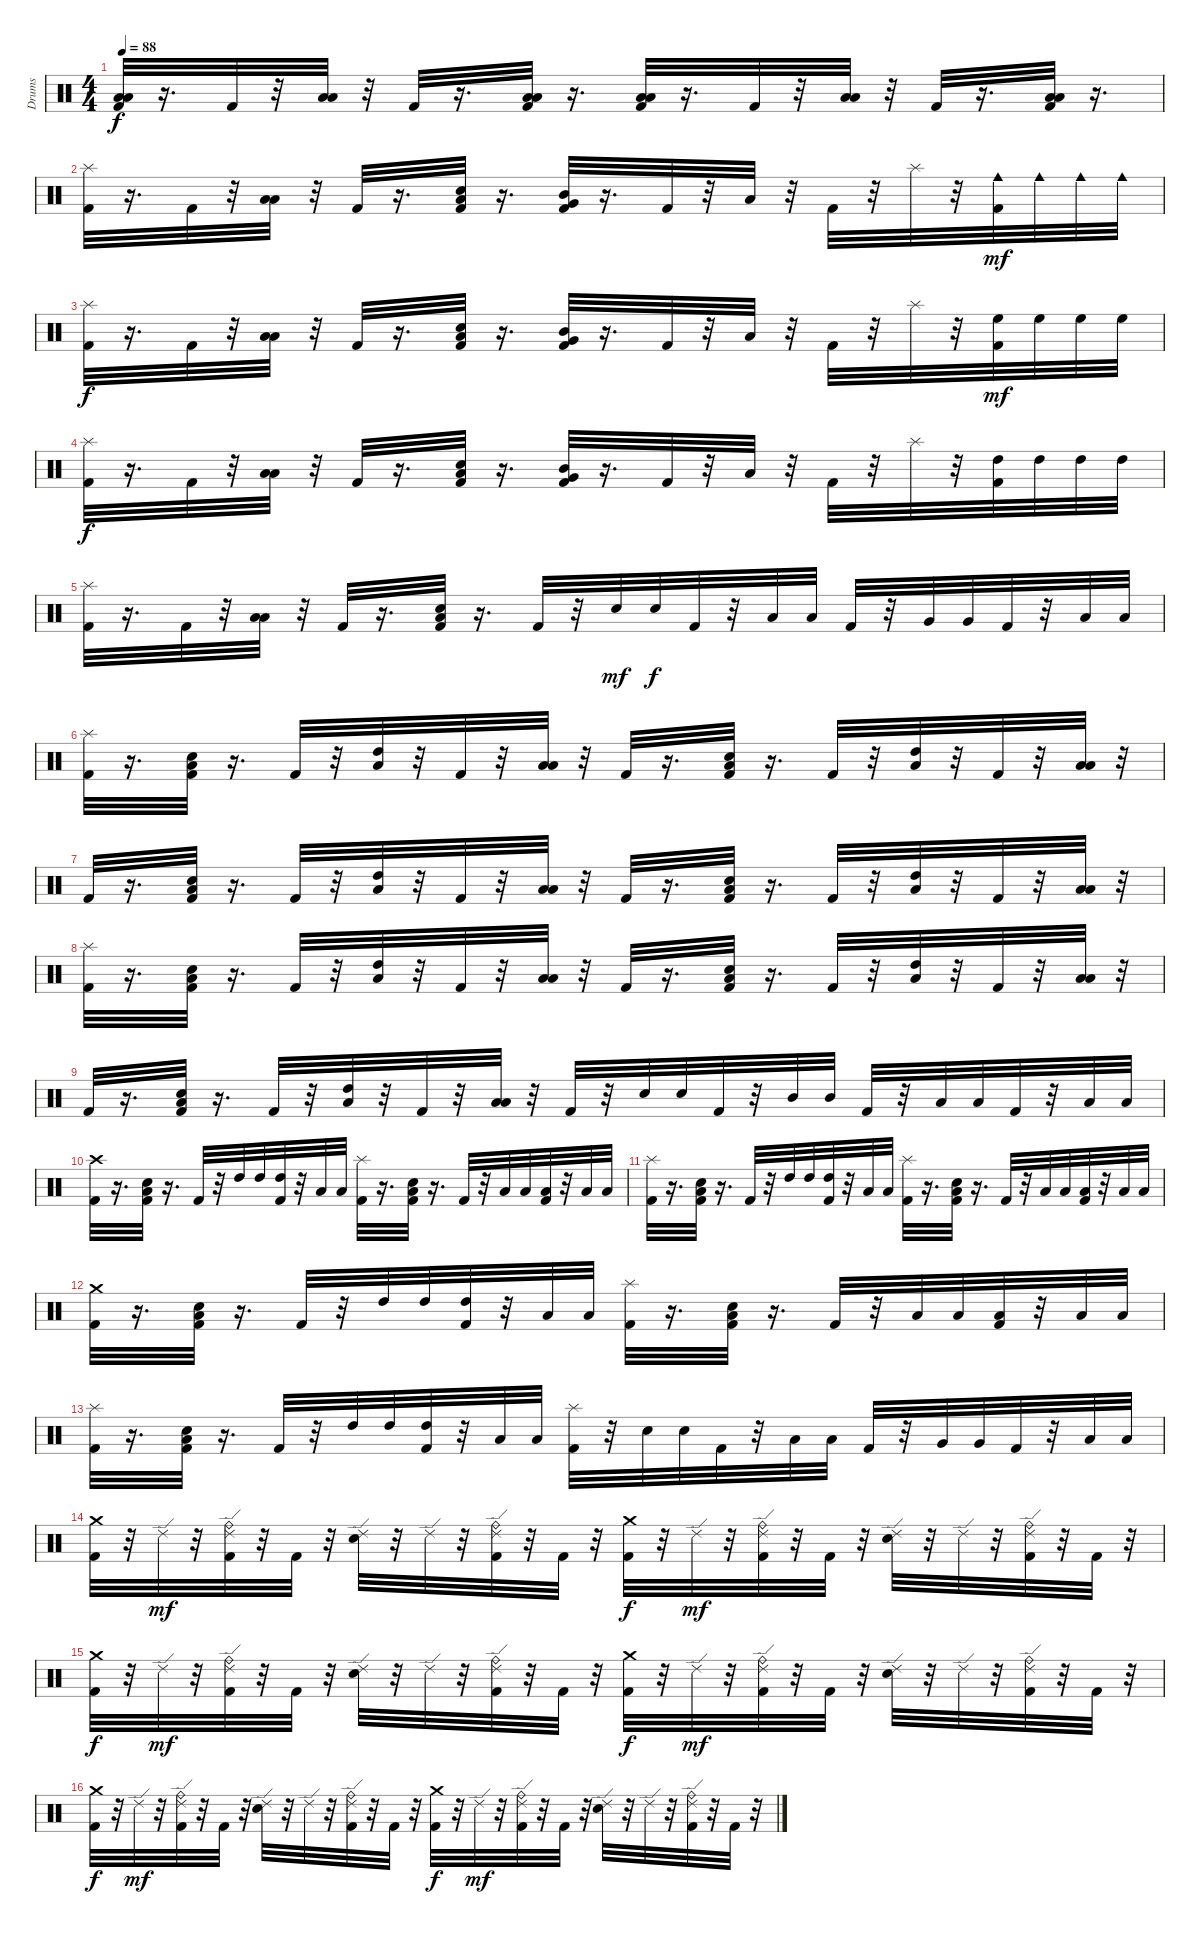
\track ("Drums" "Drums") {instrument percussion}
\staff {score}
\articulation defaults
\ts (4 4)
\tempo 88
\clef neutral
\ks c
("Low Tom (hit)" "Low Floor Tom (hit)" "Kick (hit) 2").32{dy f} r.16{d} "Kick (hit) 2".32 r.32 ("Low Tom (hit)" "Low Floor Tom (hit)").32 r.32 "Kick (hit) 2".32 r.16{d} ("Kick (hit) 2" "Low Floor Tom (hit)" "Low Tom (hit)").32 r.16{d} ("Low Tom (hit)" "Low Floor Tom (hit)" "Kick (hit) 2").32 r.16{d} "Kick (hit) 2".32 r.32 ("Low Floor Tom (hit)" "Low Tom (hit)").32 r.32 "Kick (hit) 2".32 r.16{d} ("Kick (hit) 2" "Low Tom (hit)" "Low Floor Tom (hit)").32 r.16{d} |
("Splash (hit)" "Kick (hit) 2").32 r.16{d} "Kick (hit) 2".32 r.32 ("Low Tom (hit)" "Low Floor Tom (hit)").32 r.32 "Kick (hit) 2".32 r.16{d} ("Low Floor Tom (hit)" "Kick (hit) 2" "Snare (hit) 2").32 r.16{d} ("Mid Tom (hit)" "Very Low Tom (hit)" "Kick (hit) 2").32 r.16{d} "Kick (hit) 2".32 r.32 "Low Floor Tom (hit)".32 r.32 "Kick (hit) 2".32 r.32 "Splash (hit)".32 r.32 ("Cowbell medium (hit)" "Kick (hit) 2").32{dy mf} "Cowbell medium (hit)".32 "Cowbell medium (hit)".32 "Cowbell medium (hit)".32 |
("Splash (hit)" "Kick (hit) 2").32{dy f} r.16{d} "Kick (hit) 2".32 r.32 ("Low Tom (hit)" "Low Floor Tom (hit)").32 r.32 "Kick (hit) 2".32 r.16{d} ("Low Floor Tom (hit)" "Kick (hit) 2" "Snare (hit) 2").32 r.16{d} ("Mid Tom (hit)" "Very Low Tom (hit)" "Kick (hit) 2").32 r.16{d} "Kick (hit) 2".32 r.32 "Low Floor Tom (hit)".32 r.32 "Kick (hit) 2".32 r.32 "Splash (hit)".32 r.32 ("High Floor Tom (hit)" "Kick (hit) 2").32{dy mf} "High Floor Tom (hit)".32 "High Floor Tom (hit)".32 "High Floor Tom (hit)".32 |
("Kick (hit) 2" "Splash (hit)").32{dy f} r.16{d} "Kick (hit) 2".32 r.32 ("Low Tom (hit)" "Low Floor Tom (hit)").32 r.32 "Kick (hit) 2".32 r.16{d} ("Low Floor Tom (hit)" "Kick (hit) 2" "Snare (hit) 2").32 r.16{d} ("Mid Tom (hit)" "Very Low Tom (hit)" "Kick (hit) 2").32 r.16{d} "Kick (hit) 2".32 r.32 "Low Floor Tom (hit)".32 r.32 "Kick (hit) 2".32 r.32 "Splash (hit)".32 r.32 ("High Tom (hit)" "Kick (hit) 2").32 "High Tom (hit)".32 "High Tom (hit)".32 "High Tom (hit)".32 |
("Splash (hit)" "Kick (hit) 2").32 r.16{d} "Kick (hit) 2".32 r.32 ("Low Tom (hit)" "Low Floor Tom (hit)").32 r.32 "Kick (hit) 2".32 r.16{d} ("Low Floor Tom (hit)" "Kick (hit) 2" "Snare (hit) 2").32 r.16{d} "Kick (hit) 2".32 r.32 "Snare (hit) 2".32{dy mf} "Snare (hit) 2".32{dy f} "Kick (hit) 2".32 r.32 "Low Tom (hit)".32 "Low Tom (hit)".32 "Kick (hit) 2".32 r.32 "Very Low Tom (hit)".32 "Very Low Tom (hit)".32 "Kick (hit) 2".32 r.32 "Low Floor Tom (hit)".32 "Low Floor Tom (hit)".32 |
("Kick (hit) 2" "Splash (hit)").32 r.16{d} ("Low Floor Tom (hit)" "Snare (hit) 2" "Kick (hit) 2").32 r.16{d} "Kick (hit) 2".32 r.32 ("Low Tom (hit)" "High Tom (hit)").32 r.32 "Kick (hit) 2".32 r.32 ("Low Floor Tom (hit)" "Low Tom (hit)").32 r.32 "Kick (hit) 2".32 r.16{d} ("Low Floor Tom (hit)" "Kick (hit) 2" "Snare (hit) 2").32 r.16{d} "Kick (hit) 2".32 r.32 ("Low Tom (hit)" "High Tom (hit)").32 r.32 "Kick (hit) 2".32 r.32 ("Low Tom (hit)" "Low Floor Tom (hit)").32 r.32 |
"Kick (hit) 2".32 r.16{d} ("Low Floor Tom (hit)" "Snare (hit) 2" "Kick (hit) 2").32 r.16{d} "Kick (hit) 2".32 r.32 ("Low Tom (hit)" "High Tom (hit)").32 r.32 "Kick (hit) 2".32 r.32 ("Low Floor Tom (hit)" "Low Tom (hit)").32 r.32 "Kick (hit) 2".32 r.16{d} ("Low Floor Tom (hit)" "Kick (hit) 2" "Snare (hit) 2").32 r.16{d} "Kick (hit) 2".32 r.32 ("Low Tom (hit)" "High Tom (hit)").32 r.32 "Kick (hit) 2".32 r.32 ("Low Tom (hit)" "Low Floor Tom (hit)").32 r.32 |
("Kick (hit) 2" "Splash (hit)").32 r.16{d} ("Low Floor Tom (hit)" "Snare (hit) 2" "Kick (hit) 2").32 r.16{d} "Kick (hit) 2".32 r.32 ("Low Tom (hit)" "High Tom (hit)").32 r.32 "Kick (hit) 2".32 r.32 ("Low Floor Tom (hit)" "Low Tom (hit)").32 r.32 "Kick (hit) 2".32 r.16{d} ("Low Floor Tom (hit)" "Kick (hit) 2" "Snare (hit) 2").32 r.16{d} "Kick (hit) 2".32 r.32 ("Low Tom (hit)" "High Tom (hit)").32 r.32 "Kick (hit) 2".32 r.32 ("Low Tom (hit)" "Low Floor Tom (hit)").32 r.32 |
"Kick (hit) 2".32 r.16{d} ("Low Floor Tom (hit)" "Snare (hit) 2" "Kick (hit) 2").32 r.16{d} "Kick (hit) 2".32 r.32 ("Low Tom (hit)" "High Tom (hit)").32 r.32 "Kick (hit) 2".32 r.32 ("Low Floor Tom (hit)" "Low Tom (hit)").32 r.32 "Kick (hit) 2".32 r.32 "Snare (hit) 2".32 "Snare (hit) 2".32 "Kick (hit) 2".32 r.32 "Mid Tom (hit)".32 "Mid Tom (hit)".32 "Kick (hit) 2".32 r.32 "Low Tom (hit)".32 "Low Tom (hit)".32 "Kick (hit) 2".32 r.32 "Low Floor Tom (hit)".32 "Low Floor Tom (hit)".32 |
("Kick (hit) 2" "Crash high (hit)").32 r.16{d} ("Low Floor Tom (hit)" "Snare (hit) 2" "Kick (hit) 2").32 r.16{d} "Kick (hit) 2".32 r.32 "High Tom (hit)".32 "High Tom (hit)".32 ("High Tom (hit)" "Kick (hit) 2").32 r.32 "Low Tom (hit)".32 "Low Tom (hit)".32 ("Splash (hit)" "Kick (hit) 2").32 r.16{d} ("Low Floor Tom (hit)" "Kick (hit) 2" "Snare (hit) 2").32 r.16{d} "Kick (hit) 2".32 r.32 "Low Tom (hit)".32 "Low Tom (hit)".32 ("Low Tom (hit)" "Kick (hit) 2").32 r.32 "Low Floor Tom (hit)".32 "Low Floor Tom (hit)".32 |
("Kick (hit) 2" "Splash (hit)").32 r.16{d} ("Low Floor Tom (hit)" "Snare (hit) 2" "Kick (hit) 2").32 r.16{d} "Kick (hit) 2".32 r.32 "High Tom (hit)".32 "High Tom (hit)".32 ("High Tom (hit)" "Kick (hit) 2").32 r.32 "Low Tom (hit)".32 "Low Tom (hit)".32 ("Splash (hit)" "Kick (hit) 2").32 r.16{d} ("Low Floor Tom (hit)" "Kick (hit) 2" "Snare (hit) 2").32 r.16{d} "Kick (hit) 2".32 r.32 "Low Tom (hit)".32 "Low Tom (hit)".32 ("Low Tom (hit)" "Kick (hit) 2").32 r.32 "Low Floor Tom (hit)".32 "Low Floor Tom (hit)".32 |
("Kick (hit) 2" "Crash medium (hit)").32 r.16{d} ("Low Floor Tom (hit)" "Snare (hit) 2" "Kick (hit) 2").32 r.16{d} "Kick (hit) 2".32 r.32 "High Tom (hit)".32 "High Tom (hit)".32 ("High Tom (hit)" "Kick (hit) 2").32 r.32 "Low Tom (hit)".32 "Low Tom (hit)".32 ("Splash (hit)" "Kick (hit) 2").32 r.16{d} ("Low Floor Tom (hit)" "Kick (hit) 2" "Snare (hit) 2").32 r.16{d} "Kick (hit) 2".32 r.32 "Low Tom (hit)".32 "Low Tom (hit)".32 ("Low Tom (hit)" "Kick (hit) 2").32 r.32 "Low Floor Tom (hit)".32 "Low Floor Tom (hit)".32 |
("Kick (hit) 2" "Splash (hit)").32 r.16{d} ("Low Floor Tom (hit)" "Snare (hit) 2" "Kick (hit) 2").32 r.16{d} "Kick (hit) 2".32 r.32 "High Tom (hit)".32 "High Tom (hit)".32 ("High Tom (hit)" "Kick (hit) 2").32 r.32 "Low Tom (hit)".32 "Low Tom (hit)".32 ("Splash (hit)" "Kick (hit) 2").32 r.32 "Snare (hit) 2".32 "Snare (hit) 2".32 "Kick (hit) 2".32 r.32 "Low Tom (hit)".32 "Low Tom (hit)".32 "Kick (hit) 2".32 r.32 "Very Low Tom (hit)".32 "Very Low Tom (hit)".32 "Kick (hit) 2".32 r.32 "Low Floor Tom (hit)".32 "Low Floor Tom (hit)".32 |
("Crash medium (hit)" "Kick (hit) 2").32 r.32 "Ride (edge) 2".32{dy mf} r.32 ("Ride (bell)" "Ride (edge) 2" "Kick (hit) 2").32 r.32 "Kick (hit) 2".32 r.32 ("Ride (edge) 2" "Snare (hit) 2").32 r.32 "Ride (edge) 2".32 r.32 ("Ride (bell)" "Ride (edge) 2" "Kick (hit) 2").32 r.32 "Kick (hit) 2".32 r.32 ("Crash medium (hit)" "Kick (hit) 2").32{dy f} r.32 "Ride (edge) 2".32{dy mf} r.32 ("Ride (bell)" "Ride (edge) 2" "Kick (hit) 2").32 r.32 "Kick (hit) 2".32 r.32 ("Ride (edge) 2" "Snare (hit) 2").32 r.32 "Ride (edge) 2".32 r.32 ("Ride (bell)" "Ride (edge) 2" "Kick (hit) 2").32 r.32 "Kick (hit) 2".32 r.32 |
("Crash medium (hit)" "Kick (hit) 2").32{dy f} r.32 "Ride (edge) 2".32{dy mf} r.32 ("Ride (bell)" "Ride (edge) 2" "Kick (hit) 2").32 r.32 "Kick (hit) 2".32 r.32 ("Ride (edge) 2" "Snare (hit) 2").32 r.32 "Ride (edge) 2".32 r.32 ("Ride (bell)" "Ride (edge) 2" "Kick (hit) 2").32 r.32 "Kick (hit) 2".32 r.32 ("Crash medium (hit)" "Kick (hit) 2").32{dy f} r.32 "Ride (edge) 2".32{dy mf} r.32 ("Ride (bell)" "Ride (edge) 2" "Kick (hit) 2").32 r.32 "Kick (hit) 2".32 r.32 ("Ride (edge) 2" "Snare (hit) 2").32 r.32 "Ride (edge) 2".32 r.32 ("Ride (bell)" "Ride (edge) 2" "Kick (hit) 2").32 r.32 "Kick (hit) 2".32 r.32 |
("Crash medium (hit)" "Kick (hit) 2").32{dy f} r.32 "Ride (edge) 2".32{dy mf} r.32 ("Ride (bell)" "Ride (edge) 2" "Kick (hit) 2").32 r.32 "Kick (hit) 2".32 r.32 ("Ride (edge) 2" "Snare (hit) 2").32 r.32 "Ride (edge) 2".32 r.32 ("Ride (bell)" "Ride (edge) 2" "Kick (hit) 2").32 r.32 "Kick (hit) 2".32 r.32 ("Crash medium (hit)" "Kick (hit) 2").32{dy f} r.32 "Ride (edge) 2".32{dy mf} r.32 ("Ride (bell)" "Ride (edge) 2" "Kick (hit) 2").32 r.32 "Kick (hit) 2".32 r.32 ("Ride (edge) 2" "Snare (hit) 2").32 r.32 "Ride (edge) 2".32 r.32 ("Ride (bell)" "Ride (edge) 2" "Kick (hit) 2").32 r.32 "Kick (hit) 2".32 r.32
